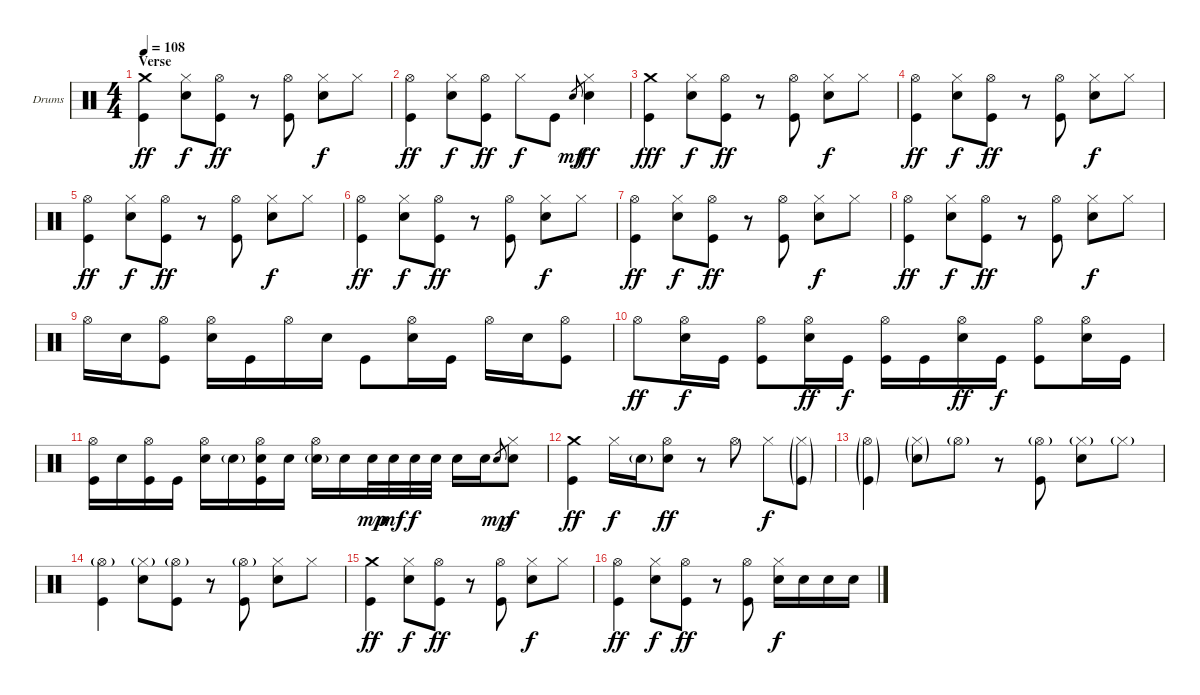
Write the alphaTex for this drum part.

\bracketExtendMode groupsimilarinstruments
\firstSystemTrackNameOrientation horizontal
\otherSystemsTrackNameOrientation horizontal
\track ("Drumkit" "Drums") {instrument percussion}
\staff {score}
\articulation defaults
\ts (4 4)
\section ("" "Verse")
\tempo 108
\clef neutral
\ks c
("Crash medium (hit)" "Kick (hit)").4{dy ff} ("Hi-Hat (closed)" "Snare (hit) 2").8{dy f} ("Hi-Hat (open)" "Kick (hit)").8{dy ff} r.8 ("Hi-Hat (open)" "Kick (hit)").8 ("Hi-Hat (closed)" "Snare (hit) 2").8{dy f} "Hi-Hat (closed)".8 |
("Hi-Hat (open)" "Kick (hit)").4{dy ff} ("Hi-Hat (closed)" "Snare (hit) 2").8{dy f} ("Hi-Hat (open)" "Kick (hit)").8{dy ff} "Hi-Hat (closed)".8{dy f} "Kick (hit)".8 "Snare (hit) 2".8{gr dy mf} ("Hi-Hat (closed)" "Snare (hit) 2").4{dy ff} |
("Crash medium (hit)" "Kick (hit)").4{dy fff} ("Hi-Hat (closed)" "Snare (hit) 2").8{dy f} ("Hi-Hat (open)" "Kick (hit)").8{dy ff} r.8 ("Hi-Hat (open)" "Kick (hit)").8 ("Hi-Hat (closed)" "Snare (hit) 2").8{dy f} "Hi-Hat (closed)".8 |
("Hi-Hat (open)" "Kick (hit)").4{dy ff} ("Hi-Hat (closed)" "Snare (hit) 2").8{dy f} ("Hi-Hat (open)" "Kick (hit)").8{dy ff} r.8 ("Hi-Hat (open)" "Kick (hit)").8 ("Hi-Hat (closed)" "Snare (hit) 2").8{dy f} "Hi-Hat (closed)".8 |
("Hi-Hat (open)" "Kick (hit)").4{dy ff} ("Hi-Hat (closed)" "Snare (hit) 2").8{dy f} ("Hi-Hat (open)" "Kick (hit)").8{dy ff} r.8 ("Hi-Hat (open)" "Kick (hit)").8 ("Hi-Hat (closed)" "Snare (hit) 2").8{dy f} "Hi-Hat (closed)".8 |
("Hi-Hat (open)" "Kick (hit)").4{dy ff} ("Hi-Hat (closed)" "Snare (hit) 2").8{dy f} ("Hi-Hat (open)" "Kick (hit)").8{dy ff} r.8 ("Hi-Hat (open)" "Kick (hit)").8 ("Hi-Hat (closed)" "Snare (hit) 2").8{dy f} "Hi-Hat (closed)".8 |
("Hi-Hat (open)" "Kick (hit)").4{dy ff} ("Hi-Hat (closed)" "Snare (hit) 2").8{dy f} ("Hi-Hat (open)" "Kick (hit)").8{dy ff} r.8 ("Hi-Hat (open)" "Kick (hit)").8 ("Hi-Hat (closed)" "Snare (hit) 2").8{dy f} "Hi-Hat (closed)".8 |
("Hi-Hat (open)" "Kick (hit)").4{dy ff} ("Hi-Hat (closed)" "Snare (hit) 2").8{dy f} ("Hi-Hat (open)" "Kick (hit)").8{dy ff} r.8 ("Hi-Hat (open)" "Kick (hit)").8 ("Hi-Hat (closed)" "Snare (hit) 2").8{dy f} "Hi-Hat (closed)".8 |
"Hi-Hat (open)".16 "Snare (hit) 2".16 ("Hi-Hat (open)" "Kick (hit)").8 ("Hi-Hat (open)" "Snare (hit) 2").16 "Kick (hit)".16 "Hi-Hat (open)".16 "Snare (hit) 2".16 "Kick (hit)".8 ("Hi-Hat (open)" "Snare (hit) 2").16 "Kick (hit)".16 "Hi-Hat (open)".16 "Snare (hit) 2".16 ("Hi-Hat (open)" "Kick (hit)").8 |
"Hi-Hat (open)".8{dy ff} ("Hi-Hat (open)" "Snare (hit) 2").16{dy f} "Kick (hit)".16 ("Hi-Hat (open)" "Kick (hit)").8 ("Hi-Hat (open)" "Snare (hit) 2").16{dy ff} "Kick (hit)".16{dy f} ("Hi-Hat (open)" "Kick (hit)").16 "Kick (hit)".16 ("Hi-Hat (open)" "Snare (hit) 2").16{dy ff} "Kick (hit)".16{dy f} ("Hi-Hat (open)" "Kick (hit)").8 ("Hi-Hat (open)" "Snare (hit) 2").16 "Kick (hit)".16 |
("Hi-Hat (open)" "Kick (hit)").16 "Snare (hit) 2".16 ("Hi-Hat (open)" "Kick (hit)").16 "Kick (hit)".16 ("Hi-Hat (open)" "Snare (hit) 2").16 "Snare (hit) 2"{g}.16 ("Hi-Hat (open)" "Snare (hit) 2" "Kick (hit)").16 "Snare (hit) 2".16 ("Hi-Hat (open)" "Snare (hit) 2"{g}).16 "Snare (hit) 2".16 "Snare (hit) 2".32{dy mp} "Snare (hit) 2".32{dy mf} "Snare (hit) 2".32{dy f} "Snare (hit) 2".32 "Snare (hit) 2".16 "Snare (hit) 2".16 "Snare (hit) 2".8{gr dy mp} ("Hi-Hat (closed)" "Snare (hit) 2").8{dy f} |
("Crash medium (hit)" "Kick (hit)").4{dy ff} "Hi-Hat (closed)".16{dy f} "Snare (hit) 2"{g}.16 ("Hi-Hat (open)" "Snare (hit) 2").8{dy ff} r.8 "Hi-Hat (open)".8 "Hi-Hat (closed)".8{dy f} ("Hi-Hat (closed)"{g} "Kick (hit)"{g}).8 |
("Hi-Hat (open)"{g} "Kick (hit)"{g}).4 ("Hi-Hat (closed)"{g} "Snare (hit) 2"{g}).8 "Hi-Hat (open)"{g}.8 r.8 ("Hi-Hat (open)"{g} "Kick (hit)").8 ("Hi-Hat (closed)"{g} "Snare (hit) 2").8 "Hi-Hat (closed)"{g}.8 |
("Hi-Hat (open)"{g} "Kick (hit)").4 ("Hi-Hat (closed)"{g} "Snare (hit) 2").8 ("Hi-Hat (open)"{g} "Kick (hit)").8 r.8 ("Hi-Hat (open)"{g} "Kick (hit)").8 ("Hi-Hat (closed)" "Snare (hit) 2").8 "Hi-Hat (closed)".8 |
("Crash medium (hit)" "Kick (hit)").4{dy ff} ("Hi-Hat (closed)" "Snare (hit) 2").8{dy f} ("Hi-Hat (open)" "Kick (hit)").8{dy ff} r.8 ("Hi-Hat (open)" "Kick (hit)").8 ("Hi-Hat (closed)" "Snare (hit) 2").8{dy f} "Hi-Hat (closed)".8 |
("Hi-Hat (open)" "Kick (hit)").4{dy ff} ("Hi-Hat (closed)" "Snare (hit) 2").8{dy f} ("Hi-Hat (open)" "Kick (hit)").8{dy ff} r.8 ("Hi-Hat (open)" "Kick (hit)").8 ("Hi-Hat (closed)" "Snare (hit) 2").16{dy f} "Snare (hit) 2".16 "Snare (hit) 2".16 "Snare (hit) 2".16
